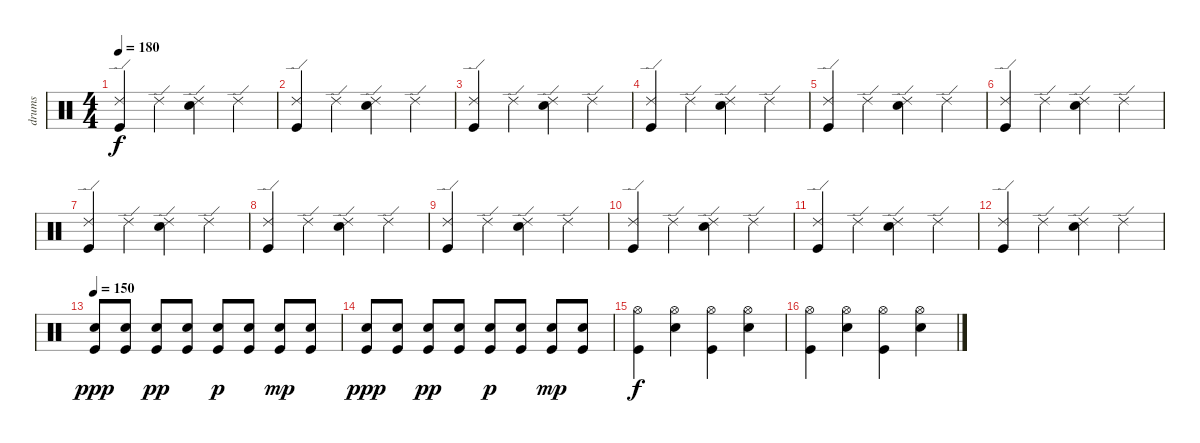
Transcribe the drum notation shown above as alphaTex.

\track ("drums" "drums") {instrument percussion}
\staff {score}
\articulation defaults
\ts (4 4)
\tempo 180
\clef neutral
\ks c
("Ride (edge) 2" "Kick (hit)").4{dy f} "Ride (edge) 2".4 ("Ride (edge) 2" "Electric Snare (hit)").4 "Ride (edge) 2".4 |
("Ride (edge) 2" "Kick (hit)").4 "Ride (edge) 2".4 ("Ride (edge) 2" "Electric Snare (hit)").4 "Ride (edge) 2".4 |
("Ride (edge) 2" "Kick (hit)").4 "Ride (edge) 2".4 ("Ride (edge) 2" "Electric Snare (hit)").4 "Ride (edge) 2".4 |
("Ride (edge) 2" "Kick (hit)").4 "Ride (edge) 2".4 ("Ride (edge) 2" "Electric Snare (hit)").4 "Ride (edge) 2".4 |
("Ride (edge) 2" "Kick (hit)").4 "Ride (edge) 2".4 ("Ride (edge) 2" "Electric Snare (hit)").4 "Ride (edge) 2".4 |
("Ride (edge) 2" "Kick (hit)").4 "Ride (edge) 2".4 ("Ride (edge) 2" "Electric Snare (hit)").4 "Ride (edge) 2".4 |
("Ride (edge) 2" "Kick (hit)").4 "Ride (edge) 2".4 ("Ride (edge) 2" "Electric Snare (hit)").4 "Ride (edge) 2".4 |
("Ride (edge) 2" "Kick (hit)").4 "Ride (edge) 2".4 ("Ride (edge) 2" "Electric Snare (hit)").4 "Ride (edge) 2".4 |
("Ride (edge) 2" "Kick (hit)").4 "Ride (edge) 2".4 ("Ride (edge) 2" "Electric Snare (hit)").4 "Ride (edge) 2".4 |
("Ride (edge) 2" "Kick (hit)").4 "Ride (edge) 2".4 ("Ride (edge) 2" "Electric Snare (hit)").4 "Ride (edge) 2".4 |
("Ride (edge) 2" "Kick (hit)").4 "Ride (edge) 2".4 ("Ride (edge) 2" "Electric Snare (hit)").4 "Ride (edge) 2".4 |
("Ride (edge) 2" "Kick (hit)").4 "Ride (edge) 2".4 ("Ride (edge) 2" "Electric Snare (hit)").4 "Ride (edge) 2".4 |
\tempo 150
("Electric Snare (hit)" "Kick (hit)").8{dy ppp} ("Electric Snare (hit)" "Kick (hit)").8 ("Electric Snare (hit)" "Kick (hit)").8{dy pp} ("Electric Snare (hit)" "Kick (hit)").8 ("Electric Snare (hit)" "Kick (hit)").8{dy p} ("Electric Snare (hit)" "Kick (hit)").8 ("Electric Snare (hit)" "Kick (hit)").8{dy mp} ("Electric Snare (hit)" "Kick (hit)").8 |
("Electric Snare (hit)" "Kick (hit)").8{dy ppp} ("Electric Snare (hit)" "Kick (hit)").8 ("Electric Snare (hit)" "Kick (hit)").8{dy pp} ("Electric Snare (hit)" "Kick (hit)").8 ("Electric Snare (hit)" "Kick (hit)").8{dy p} ("Electric Snare (hit)" "Kick (hit)").8 ("Electric Snare (hit)" "Kick (hit)").8{dy mp} ("Electric Snare (hit)" "Kick (hit)").8 |
("Hi-Hat (open)" "Kick (hit)").4{dy f} ("Hi-Hat (open)" "Electric Snare (hit)").4 ("Hi-Hat (open)" "Kick (hit)").4 ("Hi-Hat (open)" "Electric Snare (hit)").4 |
("Hi-Hat (open)" "Kick (hit)").4 ("Hi-Hat (open)" "Electric Snare (hit)").4 ("Hi-Hat (open)" "Kick (hit)").4 ("Hi-Hat (open)" "Electric Snare (hit)").4
